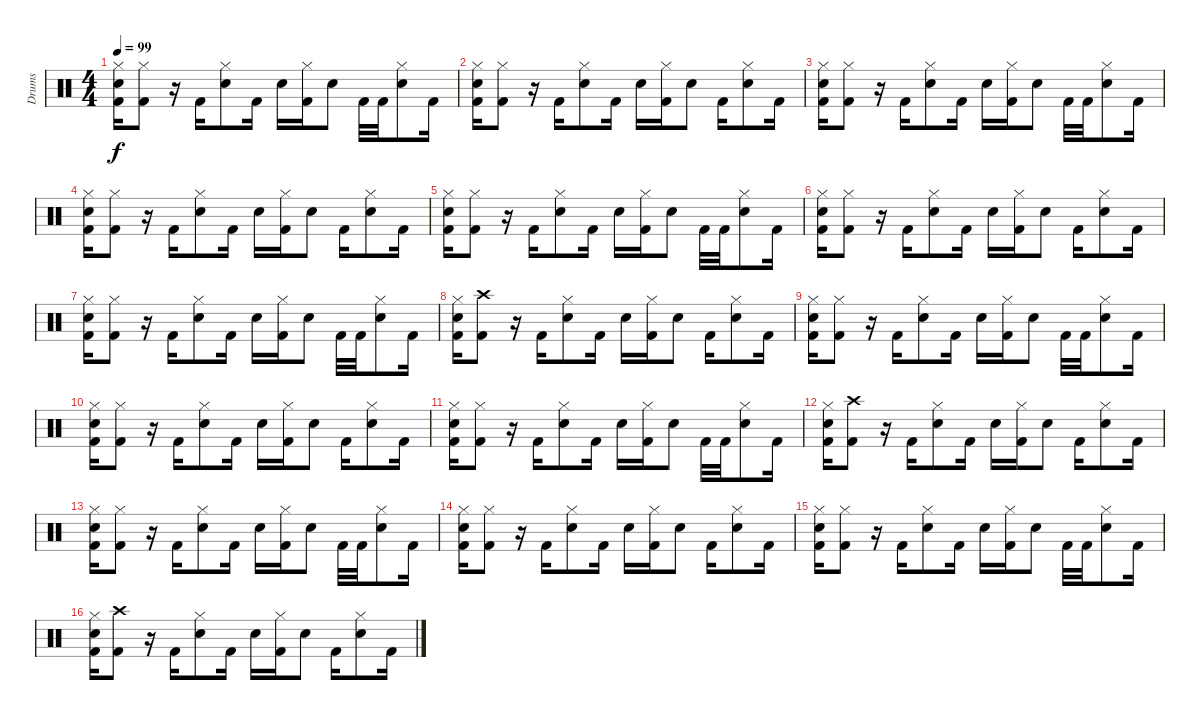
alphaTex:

\track ("Drums" "Drums") {instrument percussion}
\staff {score}
\articulation defaults
\ts (4 4)
\tempo 99
\clef neutral
\ks c
("Hi-Hat (closed)" "Snare (hit) 2" "Kick (hit) 2").16{dy f} ("Hi-Hat (closed)" "Kick (hit) 2").8 r.16 "Kick (hit) 2".16 ("Hi-Hat (closed)" "Snare (hit) 2").8 "Kick (hit) 2".16 "Snare (hit) 2".16 ("Hi-Hat (closed)" "Kick (hit) 2").16 "Snare (hit) 2".8 "Kick (hit) 2".32 "Kick (hit) 2".32 ("Hi-Hat (closed)" "Snare (hit) 2").8 "Kick (hit) 2".16 |
("Hi-Hat (closed)" "Snare (hit) 2" "Kick (hit) 2").16 ("Hi-Hat (closed)" "Kick (hit) 2").8 r.16 "Kick (hit) 2".16 ("Hi-Hat (closed)" "Snare (hit) 2").8 "Kick (hit) 2".16 "Snare (hit) 2".16 ("Hi-Hat (closed)" "Kick (hit) 2").16 "Snare (hit) 2".8 "Kick (hit) 2".16 ("Hi-Hat (closed)" "Snare (hit) 2").8 "Kick (hit) 2".16 |
("Hi-Hat (closed)" "Snare (hit) 2" "Kick (hit) 2").16 ("Hi-Hat (closed)" "Kick (hit) 2").8 r.16 "Kick (hit) 2".16 ("Hi-Hat (closed)" "Snare (hit) 2").8 "Kick (hit) 2".16 "Snare (hit) 2".16 ("Hi-Hat (closed)" "Kick (hit) 2").16 "Snare (hit) 2".8 "Kick (hit) 2".32 "Kick (hit) 2".32 ("Hi-Hat (closed)" "Snare (hit) 2").8 "Kick (hit) 2".16 |
("Hi-Hat (closed)" "Snare (hit) 2" "Kick (hit) 2").16 ("Hi-Hat (closed)" "Kick (hit) 2").8 r.16 "Kick (hit) 2".16 ("Hi-Hat (closed)" "Snare (hit) 2").8 "Kick (hit) 2".16 "Snare (hit) 2".16 ("Hi-Hat (closed)" "Kick (hit) 2").16 "Snare (hit) 2".8 "Kick (hit) 2".16 ("Hi-Hat (closed)" "Snare (hit) 2").8 "Kick (hit) 2".16 |
("Hi-Hat (closed)" "Snare (hit) 2" "Kick (hit) 2").16 ("Hi-Hat (closed)" "Kick (hit) 2").8 r.16 "Kick (hit) 2".16 ("Hi-Hat (closed)" "Snare (hit) 2").8 "Kick (hit) 2".16 "Snare (hit) 2".16 ("Hi-Hat (closed)" "Kick (hit) 2").16 "Snare (hit) 2".8 "Kick (hit) 2".32 "Kick (hit) 2".32 ("Hi-Hat (closed)" "Snare (hit) 2").8 "Kick (hit) 2".16 |
("Hi-Hat (closed)" "Snare (hit) 2" "Kick (hit) 2").16 ("Hi-Hat (closed)" "Kick (hit) 2").8 r.16 "Kick (hit) 2".16 ("Hi-Hat (closed)" "Snare (hit) 2").8 "Kick (hit) 2".16 "Snare (hit) 2".16 ("Hi-Hat (closed)" "Kick (hit) 2").16 "Snare (hit) 2".8 "Kick (hit) 2".16 ("Hi-Hat (closed)" "Snare (hit) 2").8 "Kick (hit) 2".16 |
("Hi-Hat (closed)" "Snare (hit) 2" "Kick (hit) 2").16 ("Hi-Hat (closed)" "Kick (hit) 2").8 r.16 "Kick (hit) 2".16 ("Hi-Hat (closed)" "Snare (hit) 2").8 "Kick (hit) 2".16 "Snare (hit) 2".16 ("Hi-Hat (closed)" "Kick (hit) 2").16 "Snare (hit) 2".8 "Kick (hit) 2".32 "Kick (hit) 2".32 ("Hi-Hat (closed)" "Snare (hit) 2").8 "Kick (hit) 2".16 |
("Hi-Hat (closed)" "Snare (hit) 2" "Kick (hit) 2").16 ("Crash high (hit)" "Kick (hit) 2").8 r.16 "Kick (hit) 2".16 ("Hi-Hat (closed)" "Snare (hit) 2").8 "Kick (hit) 2".16 "Snare (hit) 2".16 ("Hi-Hat (closed)" "Kick (hit) 2").16 "Snare (hit) 2".8 "Kick (hit) 2".16 ("Hi-Hat (closed)" "Snare (hit) 2").8 "Kick (hit) 2".16 |
("Hi-Hat (closed)" "Snare (hit) 2" "Kick (hit) 2").16 ("Hi-Hat (closed)" "Kick (hit) 2").8 r.16 "Kick (hit) 2".16 ("Hi-Hat (closed)" "Snare (hit) 2").8 "Kick (hit) 2".16 "Snare (hit) 2".16 ("Hi-Hat (closed)" "Kick (hit) 2").16 "Snare (hit) 2".8 "Kick (hit) 2".32 "Kick (hit) 2".32 ("Hi-Hat (closed)" "Snare (hit) 2").8 "Kick (hit) 2".16 |
("Hi-Hat (closed)" "Snare (hit) 2" "Kick (hit) 2").16 ("Hi-Hat (closed)" "Kick (hit) 2").8 r.16 "Kick (hit) 2".16 ("Hi-Hat (closed)" "Snare (hit) 2").8 "Kick (hit) 2".16 "Snare (hit) 2".16 ("Hi-Hat (closed)" "Kick (hit) 2").16 "Snare (hit) 2".8 "Kick (hit) 2".16 ("Hi-Hat (closed)" "Snare (hit) 2").8 "Kick (hit) 2".16 |
("Hi-Hat (closed)" "Snare (hit) 2" "Kick (hit) 2").16 ("Hi-Hat (closed)" "Kick (hit) 2").8 r.16 "Kick (hit) 2".16 ("Hi-Hat (closed)" "Snare (hit) 2").8 "Kick (hit) 2".16 "Snare (hit) 2".16 ("Hi-Hat (closed)" "Kick (hit) 2").16 "Snare (hit) 2".8 "Kick (hit) 2".32 "Kick (hit) 2".32 ("Hi-Hat (closed)" "Snare (hit) 2").8 "Kick (hit) 2".16 |
("Hi-Hat (closed)" "Snare (hit) 2" "Kick (hit) 2").16 ("Crash high (hit)" "Kick (hit) 2").8 r.16 "Kick (hit) 2".16 ("Hi-Hat (closed)" "Snare (hit) 2").8 "Kick (hit) 2".16 "Snare (hit) 2".16 ("Hi-Hat (closed)" "Kick (hit) 2").16 "Snare (hit) 2".8 "Kick (hit) 2".16 ("Hi-Hat (closed)" "Snare (hit) 2").8 "Kick (hit) 2".16 |
("Hi-Hat (closed)" "Snare (hit) 2" "Kick (hit) 2").16 ("Hi-Hat (closed)" "Kick (hit) 2").8 r.16 "Kick (hit) 2".16 ("Hi-Hat (closed)" "Snare (hit) 2").8 "Kick (hit) 2".16 "Snare (hit) 2".16 ("Hi-Hat (closed)" "Kick (hit) 2").16 "Snare (hit) 2".8 "Kick (hit) 2".32 "Kick (hit) 2".32 ("Hi-Hat (closed)" "Snare (hit) 2").8 "Kick (hit) 2".16 |
("Hi-Hat (closed)" "Snare (hit) 2" "Kick (hit) 2").16 ("Hi-Hat (closed)" "Kick (hit) 2").8 r.16 "Kick (hit) 2".16 ("Hi-Hat (closed)" "Snare (hit) 2").8 "Kick (hit) 2".16 "Snare (hit) 2".16 ("Hi-Hat (closed)" "Kick (hit) 2").16 "Snare (hit) 2".8 "Kick (hit) 2".16 ("Hi-Hat (closed)" "Snare (hit) 2").8 "Kick (hit) 2".16 |
("Hi-Hat (closed)" "Snare (hit) 2" "Kick (hit) 2").16 ("Hi-Hat (closed)" "Kick (hit) 2").8 r.16 "Kick (hit) 2".16 ("Hi-Hat (closed)" "Snare (hit) 2").8 "Kick (hit) 2".16 "Snare (hit) 2".16 ("Hi-Hat (closed)" "Kick (hit) 2").16 "Snare (hit) 2".8 "Kick (hit) 2".32 "Kick (hit) 2".32 ("Hi-Hat (closed)" "Snare (hit) 2").8 "Kick (hit) 2".16 |
("Hi-Hat (closed)" "Snare (hit) 2" "Kick (hit) 2").16 ("Crash high (hit)" "Kick (hit) 2").8 r.16 "Kick (hit) 2".16 ("Hi-Hat (closed)" "Snare (hit) 2").8 "Kick (hit) 2".16 "Snare (hit) 2".16 ("Hi-Hat (closed)" "Kick (hit) 2").16 "Snare (hit) 2".8 "Kick (hit) 2".16 ("Hi-Hat (closed)" "Snare (hit) 2").8 "Kick (hit) 2".16
